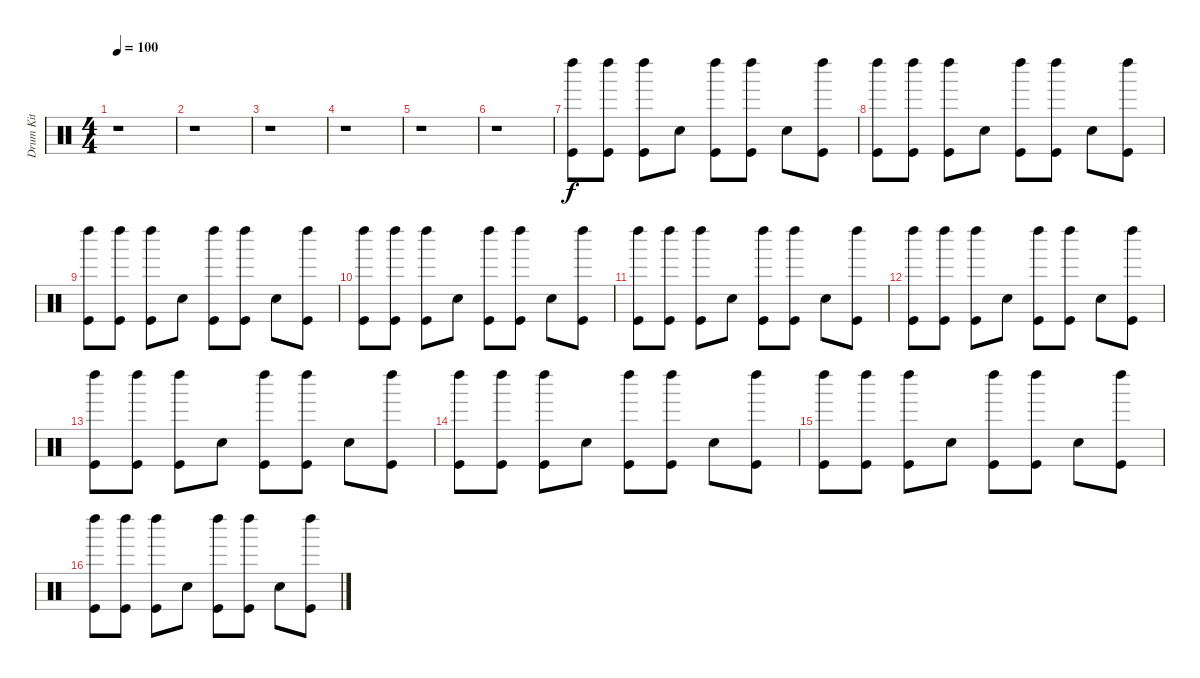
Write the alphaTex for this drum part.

\track ("Drum Kit" "Drum Kit") {instrument percussion}
\staff {score}
\articulation defaults
\ts (4 4)
\tempo 100
\clef neutral
\ks c
r.1{dy f} |
r.1 |
r.1 |
r.1 |
r.1 |
r.1 |
("Left Maraca (hit)" "Kick (hit)").8 ("Left Maraca (hit)" "Kick (hit)").8 ("Left Maraca (hit)" "Kick (hit)").8 "Snare (hit) 2".8 ("Left Maraca (hit)" "Kick (hit)").8 ("Left Maraca (hit)" "Kick (hit)").8 "Snare (hit) 2".8 ("Left Maraca (hit)" "Kick (hit)").8 |
("Left Maraca (hit)" "Kick (hit)").8 ("Left Maraca (hit)" "Kick (hit)").8 ("Left Maraca (hit)" "Kick (hit)").8 "Snare (hit) 2".8 ("Left Maraca (hit)" "Kick (hit)").8 ("Left Maraca (hit)" "Kick (hit)").8 "Snare (hit) 2".8 ("Left Maraca (hit)" "Kick (hit)").8 |
("Left Maraca (hit)" "Kick (hit)").8 ("Left Maraca (hit)" "Kick (hit)").8 ("Left Maraca (hit)" "Kick (hit)").8 "Snare (hit) 2".8 ("Left Maraca (hit)" "Kick (hit)").8 ("Left Maraca (hit)" "Kick (hit)").8 "Snare (hit) 2".8 ("Left Maraca (hit)" "Kick (hit)").8 |
("Left Maraca (hit)" "Kick (hit)").8 ("Left Maraca (hit)" "Kick (hit)").8 ("Left Maraca (hit)" "Kick (hit)").8 "Snare (hit) 2".8 ("Left Maraca (hit)" "Kick (hit)").8 ("Left Maraca (hit)" "Kick (hit)").8 "Snare (hit) 2".8 ("Left Maraca (hit)" "Kick (hit)").8 |
("Left Maraca (hit)" "Kick (hit)").8 ("Left Maraca (hit)" "Kick (hit)").8 ("Left Maraca (hit)" "Kick (hit)").8 "Snare (hit) 2".8 ("Left Maraca (hit)" "Kick (hit)").8 ("Left Maraca (hit)" "Kick (hit)").8 "Snare (hit) 2".8 ("Left Maraca (hit)" "Kick (hit)").8 |
("Left Maraca (hit)" "Kick (hit)").8 ("Left Maraca (hit)" "Kick (hit)").8 ("Left Maraca (hit)" "Kick (hit)").8 "Snare (hit) 2".8 ("Left Maraca (hit)" "Kick (hit)").8 ("Left Maraca (hit)" "Kick (hit)").8 "Snare (hit) 2".8 ("Left Maraca (hit)" "Kick (hit)").8 |
("Left Maraca (hit)" "Kick (hit)").8 ("Left Maraca (hit)" "Kick (hit)").8 ("Left Maraca (hit)" "Kick (hit)").8 "Snare (hit) 2".8 ("Left Maraca (hit)" "Kick (hit)").8 ("Left Maraca (hit)" "Kick (hit)").8 "Snare (hit) 2".8 ("Left Maraca (hit)" "Kick (hit)").8 |
("Left Maraca (hit)" "Kick (hit)").8 ("Left Maraca (hit)" "Kick (hit)").8 ("Left Maraca (hit)" "Kick (hit)").8 "Snare (hit) 2".8 ("Left Maraca (hit)" "Kick (hit)").8 ("Left Maraca (hit)" "Kick (hit)").8 "Snare (hit) 2".8 ("Left Maraca (hit)" "Kick (hit)").8 |
("Left Maraca (hit)" "Kick (hit)").8 ("Left Maraca (hit)" "Kick (hit)").8 ("Left Maraca (hit)" "Kick (hit)").8 "Snare (hit) 2".8 ("Left Maraca (hit)" "Kick (hit)").8 ("Left Maraca (hit)" "Kick (hit)").8 "Snare (hit) 2".8 ("Left Maraca (hit)" "Kick (hit)").8 |
("Left Maraca (hit)" "Kick (hit)").8 ("Left Maraca (hit)" "Kick (hit)").8 ("Left Maraca (hit)" "Kick (hit)").8 "Snare (hit) 2".8 ("Left Maraca (hit)" "Kick (hit)").8 ("Left Maraca (hit)" "Kick (hit)").8 "Snare (hit) 2".8 ("Left Maraca (hit)" "Kick (hit)").8
